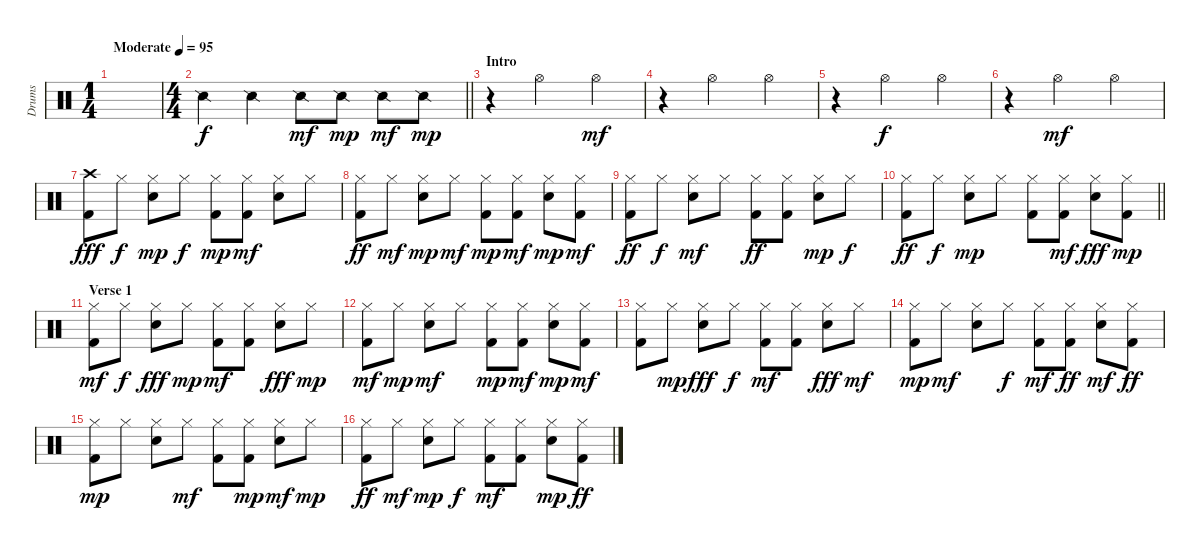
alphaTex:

\track ("Drums" "Drums") {instrument percussion}
\staff {score}
\articulation defaults
\ts (1 4)
\tempo (95 "Moderate")
\clef neutral
\ks c
|
\ts (4 4)
\barLineRight lightlight "Snare (side stick) 2".4 "Snare (side stick) 2".4 "Snare (side stick) 2".8{dy mf} "Snare (side stick) 2".8{dy mp} "Snare (side stick) 2".8{dy mf} "Snare (side stick) 2".8{dy mp}
|
\section ("" "Intro")
r.4 "Hi-Hat (open)".2 "Hi-Hat (open)".4{dy mf} |
r.4 "Hi-Hat (open)".2 "Hi-Hat (open)".4 |
r.4 "Hi-Hat (open)".2{dy f} "Hi-Hat (open)".4 |
r.4 "Hi-Hat (open)".2{dy mf} "Hi-Hat (open)".4 |
("Kick (hit) 2" "Crash high (hit)").8{dy fff} "Hi-Hat (closed)".8{dy f} ("Electric Snare (hit)" "Hi-Hat (closed)").8{dy mp} "Hi-Hat (closed)".8{dy f} ("Kick (hit) 2" "Hi-Hat (closed)").8{dy mp} ("Kick (hit) 2" "Hi-Hat (closed)").8{dy mf} ("Electric Snare (hit)" "Hi-Hat (closed)").8 "Hi-Hat (closed)".8 |
("Kick (hit) 2" "Hi-Hat (closed)").8{dy ff} "Hi-Hat (closed)".8{dy mf} ("Electric Snare (hit)" "Hi-Hat (closed)").8{dy mp} "Hi-Hat (closed)".8{dy mf} ("Kick (hit) 2" "Hi-Hat (closed)").8{dy mp} ("Kick (hit) 2" "Hi-Hat (closed)").8{dy mf} ("Electric Snare (hit)" "Hi-Hat (closed)").8{dy mp} ("Kick (hit) 2" "Hi-Hat (closed)").8{dy mf} |
("Kick (hit) 2" "Hi-Hat (closed)").8{dy ff} "Hi-Hat (closed)".8{dy f} ("Electric Snare (hit)" "Hi-Hat (closed)").8{dy mf} "Hi-Hat (closed)".8 ("Kick (hit) 2" "Hi-Hat (closed)").8{dy ff} ("Kick (hit) 2" "Hi-Hat (closed)").8 ("Electric Snare (hit)" "Hi-Hat (closed)").8{dy mp} "Hi-Hat (closed)".8{dy f} |
\barLineRight lightlight
("Kick (hit) 2" "Hi-Hat (closed)").8{dy ff} "Hi-Hat (closed)".8{dy f} ("Electric Snare (hit)" "Hi-Hat (closed)").8{dy mp} "Hi-Hat (closed)".8 ("Kick (hit) 2" "Hi-Hat (closed)").8 ("Kick (hit) 2" "Hi-Hat (closed)").8{dy mf} ("Electric Snare (hit)" "Hi-Hat (closed)").8{dy fff} ("Kick (hit) 2" "Hi-Hat (closed)").8{dy mp} |
\section ("" "Verse 1")
("Kick (hit) 2" "Hi-Hat (closed)").8{dy mf} "Hi-Hat (closed)".8{dy f} ("Electric Snare (hit)" "Hi-Hat (closed)").8{dy fff} "Hi-Hat (closed)".8{dy mp} ("Kick (hit) 2" "Hi-Hat (closed)").8{dy mf} ("Kick (hit) 2" "Hi-Hat (closed)").8 ("Electric Snare (hit)" "Hi-Hat (closed)").8{dy fff} "Hi-Hat (closed)".8{dy mp} |
("Kick (hit) 2" "Hi-Hat (closed)").8{dy mf} "Hi-Hat (closed)".8{dy mp} ("Electric Snare (hit)" "Hi-Hat (closed)").8{dy mf} "Hi-Hat (closed)".8 ("Kick (hit) 2" "Hi-Hat (closed)").8{dy mp} ("Kick (hit) 2" "Hi-Hat (closed)").8{dy mf} ("Electric Snare (hit)" "Hi-Hat (closed)").8{dy mp} ("Kick (hit) 2" "Hi-Hat (closed)").8{dy mf} |
("Kick (hit) 2" "Hi-Hat (closed)").8 "Hi-Hat (closed)".8{dy mp} ("Electric Snare (hit)" "Hi-Hat (closed)").8{dy fff} "Hi-Hat (closed)".8{dy f} ("Kick (hit) 2" "Hi-Hat (closed)").8{dy mf} ("Kick (hit) 2" "Hi-Hat (closed)").8 ("Electric Snare (hit)" "Hi-Hat (closed)").8{dy fff} "Hi-Hat (closed)".8{dy mf} |
("Kick (hit) 2" "Hi-Hat (closed)").8{dy mp} "Hi-Hat (closed)".8{dy mf} ("Electric Snare (hit)" "Hi-Hat (closed)").8 "Hi-Hat (closed)".8{dy f} ("Kick (hit) 2" "Hi-Hat (closed)").8{dy mf} ("Kick (hit) 2" "Hi-Hat (closed)").8{dy ff} ("Electric Snare (hit)" "Hi-Hat (closed)").8{dy mf} ("Kick (hit) 2" "Hi-Hat (closed)").8{dy ff} |
("Kick (hit) 2" "Hi-Hat (closed)").8{dy mp} "Hi-Hat (closed)".8 ("Electric Snare (hit)" "Hi-Hat (closed)").8 "Hi-Hat (closed)".8{dy mf} ("Kick (hit) 2" "Hi-Hat (closed)").8 ("Kick (hit) 2" "Hi-Hat (closed)").8{dy mp} ("Electric Snare (hit)" "Hi-Hat (closed)").8{dy mf} "Hi-Hat (closed)".8{dy mp} |
("Kick (hit) 2" "Hi-Hat (closed)").8{dy ff} "Hi-Hat (closed)".8{dy mf} ("Electric Snare (hit)" "Hi-Hat (closed)").8{dy mp} "Hi-Hat (closed)".8{dy f} ("Kick (hit) 2" "Hi-Hat (closed)").8{dy mf} ("Kick (hit) 2" "Hi-Hat (closed)").8 ("Electric Snare (hit)" "Hi-Hat (closed)").8{dy mp} ("Kick (hit) 2" "Hi-Hat (closed)").8{dy ff}
